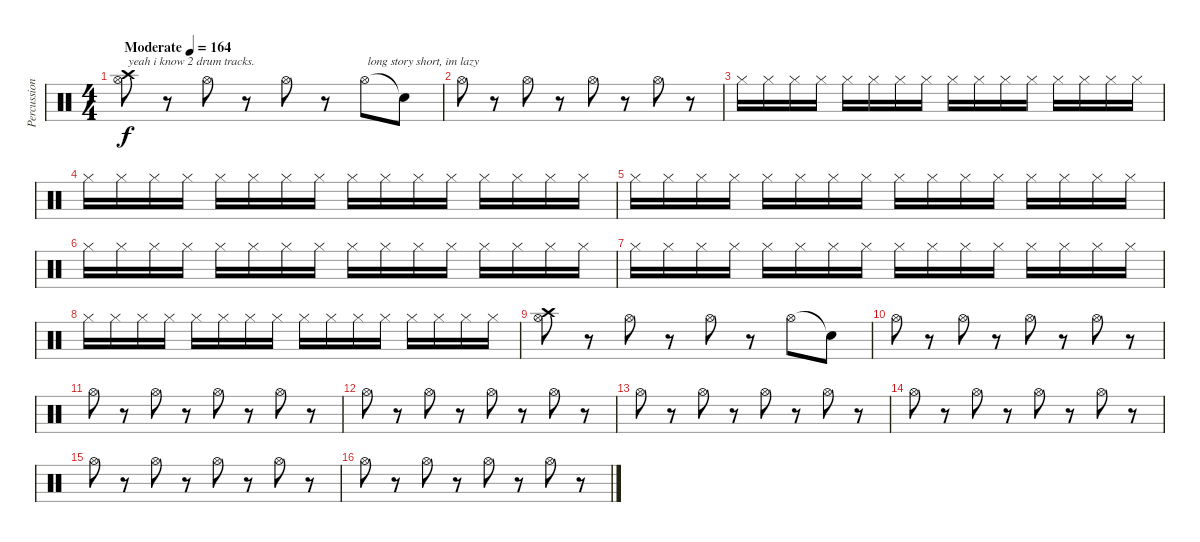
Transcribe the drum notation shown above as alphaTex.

\track ("Percussion" "Percussion") {instrument percussion}
\staff {score}
\articulation defaults
\ts (4 4)
\tempo (164 "Moderate")
\clef neutral
\ks c
("Hi-Hat (open)" "Crash high (hit)").8{txt "yeah i know 2 drum tracks." dy f} r.8 "Hi-Hat (open)".8 r.8 "Hi-Hat (open)".8 r.8 "Hi-Hat (open)".8{txt " long story short, im lazy"} "Snare (hit)"{t}.8 |
"Hi-Hat (open)".8 r.8 "Hi-Hat (open)".8 r.8 "Hi-Hat (open)".8 r.8 "Hi-Hat (open)".8 r.8 |
"Hi-Hat (closed)".16 "Hi-Hat (closed)".16 "Hi-Hat (closed)".16 "Hi-Hat (closed)".16 "Hi-Hat (closed)".16 "Hi-Hat (closed)".16 "Hi-Hat (closed)".16 "Hi-Hat (closed)".16 "Hi-Hat (closed)".16 "Hi-Hat (closed)".16 "Hi-Hat (closed)".16 "Hi-Hat (closed)".16 "Hi-Hat (closed)".16 "Hi-Hat (closed)".16 "Hi-Hat (closed)".16 "Hi-Hat (closed)".16 |
"Hi-Hat (closed)".16 "Hi-Hat (closed)".16 "Hi-Hat (closed)".16 "Hi-Hat (closed)".16 "Hi-Hat (closed)".16 "Hi-Hat (closed)".16 "Hi-Hat (closed)".16 "Hi-Hat (closed)".16 "Hi-Hat (closed)".16 "Hi-Hat (closed)".16 "Hi-Hat (closed)".16 "Hi-Hat (closed)".16 "Hi-Hat (closed)".16 "Hi-Hat (closed)".16 "Hi-Hat (closed)".16 "Hi-Hat (closed)".16 |
"Hi-Hat (closed)".16 "Hi-Hat (closed)".16 "Hi-Hat (closed)".16 "Hi-Hat (closed)".16 "Hi-Hat (closed)".16 "Hi-Hat (closed)".16 "Hi-Hat (closed)".16 "Hi-Hat (closed)".16 "Hi-Hat (closed)".16 "Hi-Hat (closed)".16 "Hi-Hat (closed)".16 "Hi-Hat (closed)".16 "Hi-Hat (closed)".16 "Hi-Hat (closed)".16 "Hi-Hat (closed)".16 "Hi-Hat (closed)".16 |
"Hi-Hat (closed)".16 "Hi-Hat (closed)".16 "Hi-Hat (closed)".16 "Hi-Hat (closed)".16 "Hi-Hat (closed)".16 "Hi-Hat (closed)".16 "Hi-Hat (closed)".16 "Hi-Hat (closed)".16 "Hi-Hat (closed)".16 "Hi-Hat (closed)".16 "Hi-Hat (closed)".16 "Hi-Hat (closed)".16 "Hi-Hat (closed)".16 "Hi-Hat (closed)".16 "Hi-Hat (closed)".16 "Hi-Hat (closed)".16 |
"Hi-Hat (closed)".16 "Hi-Hat (closed)".16 "Hi-Hat (closed)".16 "Hi-Hat (closed)".16 "Hi-Hat (closed)".16 "Hi-Hat (closed)".16 "Hi-Hat (closed)".16 "Hi-Hat (closed)".16 "Hi-Hat (closed)".16 "Hi-Hat (closed)".16 "Hi-Hat (closed)".16 "Hi-Hat (closed)".16 "Hi-Hat (closed)".16 "Hi-Hat (closed)".16 "Hi-Hat (closed)".16 "Hi-Hat (closed)".16 |
"Hi-Hat (closed)".16 "Hi-Hat (closed)".16 "Hi-Hat (closed)".16 "Hi-Hat (closed)".16 "Hi-Hat (closed)".16 "Hi-Hat (closed)".16 "Hi-Hat (closed)".16 "Hi-Hat (closed)".16 "Hi-Hat (closed)".16 "Hi-Hat (closed)".16 "Hi-Hat (closed)".16 "Hi-Hat (closed)".16 "Hi-Hat (closed)".16 "Hi-Hat (closed)".16 "Hi-Hat (closed)".16 "Hi-Hat (closed)".16 |
("Hi-Hat (open)" "Crash high (hit)").8 r.8 "Hi-Hat (open)".8 r.8 "Hi-Hat (open)".8 r.8 "Hi-Hat (open)".8 "Snare (hit)"{t}.8 |
"Hi-Hat (open)".8 r.8 "Hi-Hat (open)".8 r.8 "Hi-Hat (open)".8 r.8 "Hi-Hat (open)".8 r.8 |
"Hi-Hat (open)".8 r.8 "Hi-Hat (open)".8 r.8 "Hi-Hat (open)".8 r.8 "Hi-Hat (open)".8 r.8 |
"Hi-Hat (open)".8 r.8 "Hi-Hat (open)".8 r.8 "Hi-Hat (open)".8 r.8 "Hi-Hat (open)".8 r.8 |
"Hi-Hat (open)".8 r.8 "Hi-Hat (open)".8 r.8 "Hi-Hat (open)".8 r.8 "Hi-Hat (open)".8 r.8 |
"Hi-Hat (open)".8 r.8 "Hi-Hat (open)".8 r.8 "Hi-Hat (open)".8 r.8 "Hi-Hat (open)".8 r.8 |
"Hi-Hat (open)".8 r.8 "Hi-Hat (open)".8 r.8 "Hi-Hat (open)".8 r.8 "Hi-Hat (open)".8 r.8 |
"Hi-Hat (open)".8 r.8 "Hi-Hat (open)".8 r.8 "Hi-Hat (open)".8 r.8 "Hi-Hat (open)".8 r.8
